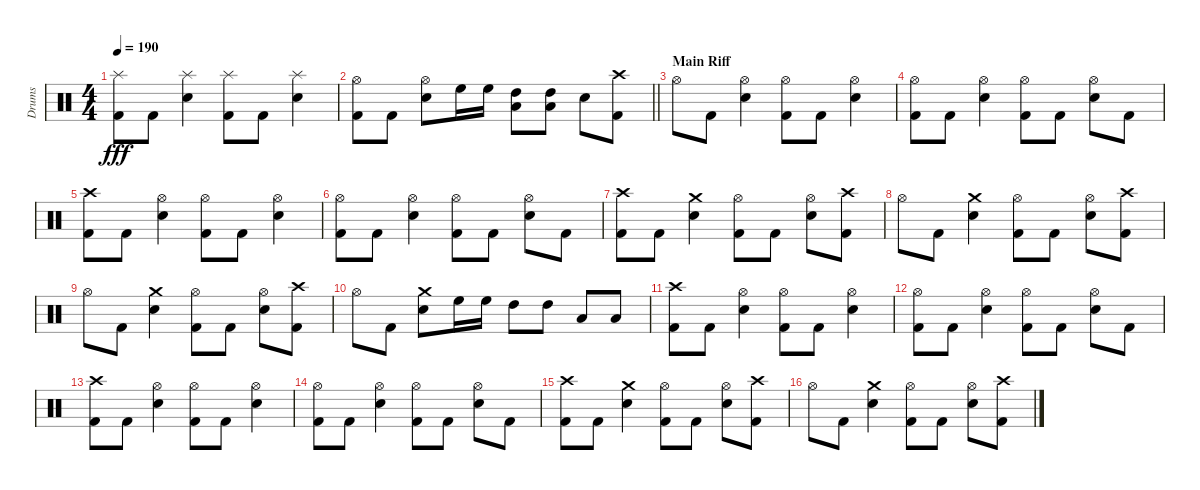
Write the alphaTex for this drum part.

\track ("Drums" "Drums") {instrument percussion}
\staff {score}
\articulation defaults
\ts (4 4)
\tempo 190
\clef neutral
\ks c
("Kick (hit) 2" "Splash (hit)").8{dy fff} "Kick (hit) 2".8 ("Electric Snare (hit)" "Splash (hit)").4 ("Kick (hit) 2" "Splash (hit)").8 "Kick (hit) 2".8 ("Electric Snare (hit)" "Splash (hit)").4 |
\barLineRight lightlight
("Kick (hit) 2" "Hi-Hat (open)").8 "Kick (hit) 2".8 ("Electric Snare (hit)" "Hi-Hat (open)").8 "High Floor Tom (hit)".16 "High Floor Tom (hit)".16 ("High Tom (hit)" "Low Tom (hit)").8 ("High Tom (hit)" "Low Tom (hit)").8 "Electric Snare (hit)".8 ("Kick (hit) 2" "Crash high (hit)").8 |
\section ("" "Main Riff")
"Hi-Hat (open)".8 "Kick (hit) 2".8 ("Electric Snare (hit)" "Hi-Hat (open)").4 ("Kick (hit) 2" "Hi-Hat (open)").8 "Kick (hit) 2".8 ("Electric Snare (hit)" "Hi-Hat (open)").4 |
("Kick (hit) 2" "Hi-Hat (open)").8 "Kick (hit) 2".8 ("Electric Snare (hit)" "Hi-Hat (open)").4 ("Kick (hit) 2" "Hi-Hat (open)").8 "Kick (hit) 2".8 ("Electric Snare (hit)" "Hi-Hat (open)").8 "Kick (hit) 2".8 |
("Kick (hit) 2" "Crash high (hit)").8 "Kick (hit) 2".8 ("Electric Snare (hit)" "Hi-Hat (open)").4 ("Kick (hit) 2" "Hi-Hat (open)").8 "Kick (hit) 2".8 ("Electric Snare (hit)" "Hi-Hat (open)").4 |
("Kick (hit) 2" "Hi-Hat (open)").8 "Kick (hit) 2".8 ("Electric Snare (hit)" "Hi-Hat (open)").4 ("Kick (hit) 2" "Hi-Hat (open)").8 "Kick (hit) 2".8 ("Electric Snare (hit)" "Hi-Hat (open)").8 "Kick (hit) 2".8 |
("Kick (hit) 2" "Crash high (hit)").8 "Kick (hit) 2".8 ("Electric Snare (hit)" "Crash medium (hit)").4 ("Kick (hit) 2" "Hi-Hat (open)").8 "Kick (hit) 2".8 ("Electric Snare (hit)" "Hi-Hat (open)").8 ("Kick (hit) 2" "Crash high (hit)").8 |
"Hi-Hat (open)".8 "Kick (hit) 2".8 ("Electric Snare (hit)" "Crash medium (hit)").4 ("Kick (hit) 2" "Hi-Hat (open)").8 "Kick (hit) 2".8 ("Electric Snare (hit)" "Hi-Hat (open)").8 ("Kick (hit) 2" "Crash high (hit)").8 |
"Hi-Hat (open)".8 "Kick (hit) 2".8 ("Electric Snare (hit)" "Crash medium (hit)").4 ("Kick (hit) 2" "Hi-Hat (open)").8 "Kick (hit) 2".8 ("Electric Snare (hit)" "Hi-Hat (open)").8 ("Kick (hit) 2" "Crash high (hit)").8 |
"Hi-Hat (open)".8 "Kick (hit) 2".8 ("Electric Snare (hit)" "Crash medium (hit)").8 "High Floor Tom (hit)".16 "High Floor Tom (hit)".16 "High Tom (hit)".8 "High Tom (hit)".8 "Low Tom (hit)".8 "Low Tom (hit)".8 |
("Kick (hit) 2" "Crash high (hit)").8 "Kick (hit) 2".8 ("Electric Snare (hit)" "Hi-Hat (open)").4 ("Kick (hit) 2" "Hi-Hat (open)").8 "Kick (hit) 2".8 ("Electric Snare (hit)" "Hi-Hat (open)").4 |
("Kick (hit) 2" "Hi-Hat (open)").8 "Kick (hit) 2".8 ("Electric Snare (hit)" "Hi-Hat (open)").4 ("Kick (hit) 2" "Hi-Hat (open)").8 "Kick (hit) 2".8 ("Electric Snare (hit)" "Hi-Hat (open)").8 "Kick (hit) 2".8 |
("Kick (hit) 2" "Crash high (hit)").8 "Kick (hit) 2".8 ("Electric Snare (hit)" "Hi-Hat (open)").4 ("Kick (hit) 2" "Hi-Hat (open)").8 "Kick (hit) 2".8 ("Electric Snare (hit)" "Hi-Hat (open)").4 |
("Kick (hit) 2" "Hi-Hat (open)").8 "Kick (hit) 2".8 ("Electric Snare (hit)" "Hi-Hat (open)").4 ("Kick (hit) 2" "Hi-Hat (open)").8 "Kick (hit) 2".8 ("Electric Snare (hit)" "Hi-Hat (open)").8 "Kick (hit) 2".8 |
("Kick (hit) 2" "Crash high (hit)").8 "Kick (hit) 2".8 ("Electric Snare (hit)" "Crash medium (hit)").4 ("Kick (hit) 2" "Hi-Hat (open)").8 "Kick (hit) 2".8 ("Electric Snare (hit)" "Hi-Hat (open)").8 ("Kick (hit) 2" "Crash high (hit)").8 |
"Hi-Hat (open)".8 "Kick (hit) 2".8 ("Electric Snare (hit)" "Crash medium (hit)").4 ("Kick (hit) 2" "Hi-Hat (open)").8 "Kick (hit) 2".8 ("Electric Snare (hit)" "Hi-Hat (open)").8 ("Kick (hit) 2" "Crash high (hit)").8
